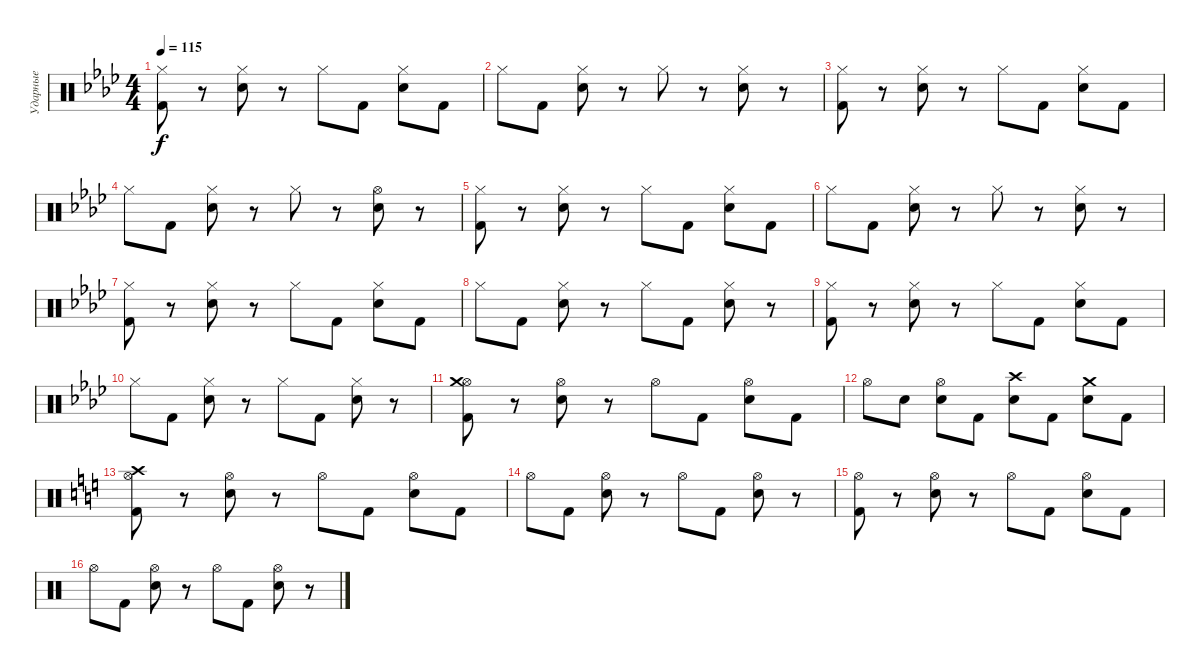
\track ("Ударные" "Ударные") {instrument percussion}
\staff {score}
\articulation defaults
\ts (4 4)
\tempo 115
\clef neutral
\ks ab
("Hi-Hat (closed)" "Kick (hit) 2").8{dy f} r.8 ("Hi-Hat (closed)" "Snare (hit) 2").8 r.8 "Hi-Hat (closed)".8 "Kick (hit) 2".8 ("Hi-Hat (closed)" "Snare (hit) 2").8 "Kick (hit) 2".8 |
"Hi-Hat (closed)".8 "Kick (hit) 2".8 ("Hi-Hat (closed)" "Snare (hit) 2").8 r.8 "Hi-Hat (closed)".8 r.8 ("Hi-Hat (closed)" "Snare (hit) 2").8 r.8 |
("Hi-Hat (closed)" "Kick (hit) 2").8 r.8 ("Hi-Hat (closed)" "Snare (hit) 2").8 r.8 "Hi-Hat (closed)".8 "Kick (hit) 2".8 ("Hi-Hat (closed)" "Snare (hit) 2").8 "Kick (hit) 2".8 |
"Hi-Hat (closed)".8 "Kick (hit) 2".8 ("Hi-Hat (closed)" "Snare (hit) 2").8 r.8 "Hi-Hat (closed)".8 r.8 ("Hi-Hat (open)" "Snare (hit) 2").8 r.8 |
("Hi-Hat (closed)" "Kick (hit) 2").8 r.8 ("Hi-Hat (closed)" "Snare (hit) 2").8 r.8 "Hi-Hat (closed)".8 "Kick (hit) 2".8 ("Hi-Hat (closed)" "Snare (hit) 2").8 "Kick (hit) 2".8 |
"Hi-Hat (closed)".8 "Kick (hit) 2".8 ("Hi-Hat (closed)" "Snare (hit) 2").8 r.8 "Hi-Hat (closed)".8 r.8 ("Hi-Hat (closed)" "Snare (hit) 2").8 r.8 |
("Hi-Hat (closed)" "Kick (hit) 2").8 r.8 ("Hi-Hat (closed)" "Snare (hit) 2").8 r.8 "Hi-Hat (closed)".8 "Kick (hit) 2".8 ("Hi-Hat (closed)" "Snare (hit) 2").8 "Kick (hit) 2".8 |
"Hi-Hat (closed)".8 "Kick (hit) 2".8 ("Hi-Hat (closed)" "Snare (hit) 2").8 r.8 "Hi-Hat (closed)".8 "Kick (hit) 2".8 ("Hi-Hat (closed)" "Snare (hit) 2").8 r.8 |
("Hi-Hat (closed)" "Kick (hit) 2").8 r.8 ("Hi-Hat (closed)" "Snare (hit) 2").8 r.8 "Hi-Hat (closed)".8 "Kick (hit) 2".8 ("Hi-Hat (closed)" "Snare (hit) 2").8 "Kick (hit) 2".8 |
"Hi-Hat (closed)".8 "Kick (hit) 2".8 ("Hi-Hat (closed)" "Snare (hit) 2").8 r.8 "Hi-Hat (closed)".8 "Kick (hit) 2".8 ("Hi-Hat (closed)" "Snare (hit) 2").8 r.8 |
("Hi-Hat (open)" "Kick (hit) 2" "Crash medium (hit)").8 r.8 ("Hi-Hat (open)" "Snare (hit) 2").8 r.8 "Hi-Hat (open)".8 "Kick (hit) 2".8 ("Hi-Hat (open)" "Snare (hit) 2").8 "Kick (hit) 2".8 |
"Hi-Hat (open)".8 "Snare (hit) 2".8 ("Hi-Hat (open)" "Snare (hit) 2").8 "Kick (hit) 2".8 ("Crash high (hit)" "Snare (hit) 2").8 "Kick (hit) 2".8 ("Crash medium (hit)" "Snare (hit) 2").8 "Kick (hit) 2".8 |
\ks c
("Hi-Hat (open)" "Crash high (hit)" "Kick (hit) 2").8 r.8 ("Hi-Hat (open)" "Snare (hit) 2").8 r.8 "Hi-Hat (open)".8 "Kick (hit) 2".8 ("Hi-Hat (open)" "Snare (hit) 2").8 "Kick (hit) 2".8 |
"Hi-Hat (open)".8 "Kick (hit) 2".8 ("Hi-Hat (open)" "Snare (hit) 2").8 r.8 "Hi-Hat (open)".8 "Kick (hit) 2".8 ("Hi-Hat (open)" "Snare (hit) 2").8 r.8 |
("Hi-Hat (open)" "Kick (hit) 2").8 r.8 ("Hi-Hat (open)" "Snare (hit) 2").8 r.8 "Hi-Hat (open)".8 "Kick (hit) 2".8 ("Hi-Hat (open)" "Snare (hit) 2").8 "Kick (hit) 2".8 |
"Hi-Hat (open)".8 "Kick (hit) 2".8 ("Hi-Hat (open)" "Snare (hit) 2").8 r.8 "Hi-Hat (open)".8 "Kick (hit) 2".8 ("Hi-Hat (open)" "Snare (hit) 2").8 r.8
